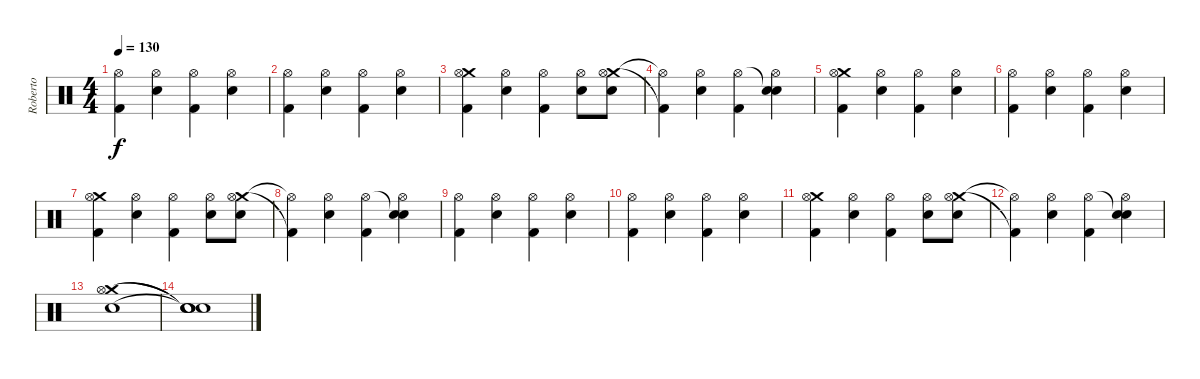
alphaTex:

\track ("Roberto" "Roberto") {instrument percussion}
\staff {score}
\articulation defaults
\ts (4 4)
\tempo 130
\clef neutral
\ks c
("Hi-Hat (open)" "Kick (hit) 2").4{dy f} ("Hi-Hat (open)" "Snare (hit) 2").4 ("Hi-Hat (open)" "Kick (hit) 2").4 ("Hi-Hat (open)" "Snare (hit) 2").4 |
("Hi-Hat (open)" "Kick (hit) 2").4 ("Hi-Hat (open)" "Snare (hit) 2").4 ("Hi-Hat (open)" "Kick (hit) 2").4 ("Hi-Hat (open)" "Snare (hit) 2").4 |
("Crash medium (hit)" "Hi-Hat (open)" "Kick (hit) 2").4 ("Hi-Hat (open)" "Snare (hit) 2").4 ("Hi-Hat (open)" "Kick (hit) 2").4 ("Hi-Hat (open)" "Snare (hit) 2").8 ("Crash medium (hit)" "Hi-Hat (open)" "Snare (hit) 2").8 |
("Hi-Hat (open)"{t} "Kick (hit) 2"{t}).4 ("Hi-Hat (open)" "Snare (hit) 2").4 ("Hi-Hat (open)" "Kick (hit) 2").4 ("Snare (hit)"{t} "Hi-Hat (open)" "Snare (hit) 2").4 |
("Crash medium (hit)" "Hi-Hat (open)" "Kick (hit) 2").4 ("Hi-Hat (open)" "Snare (hit) 2").4 ("Hi-Hat (open)" "Kick (hit) 2").4 ("Hi-Hat (open)" "Snare (hit) 2").4 |
("Hi-Hat (open)" "Kick (hit) 2").4 ("Hi-Hat (open)" "Snare (hit) 2").4 ("Hi-Hat (open)" "Kick (hit) 2").4 ("Hi-Hat (open)" "Snare (hit) 2").4 |
("Crash medium (hit)" "Hi-Hat (open)" "Kick (hit) 2").4 ("Hi-Hat (open)" "Snare (hit) 2").4 ("Hi-Hat (open)" "Kick (hit) 2").4 ("Hi-Hat (open)" "Snare (hit) 2").8 ("Crash medium (hit)" "Hi-Hat (open)" "Snare (hit) 2").8 |
("Hi-Hat (open)"{t} "Kick (hit) 2"{t}).4 ("Hi-Hat (open)" "Snare (hit) 2").4 ("Hi-Hat (open)" "Kick (hit) 2").4 ("Snare (hit)"{t} "Hi-Hat (open)" "Snare (hit) 2").4 |
("Hi-Hat (open)" "Kick (hit) 2").4 ("Hi-Hat (open)" "Snare (hit) 2").4 ("Hi-Hat (open)" "Kick (hit) 2").4 ("Hi-Hat (open)" "Snare (hit) 2").4 |
("Hi-Hat (open)" "Kick (hit) 2").4 ("Hi-Hat (open)" "Snare (hit) 2").4 ("Hi-Hat (open)" "Kick (hit) 2").4 ("Hi-Hat (open)" "Snare (hit) 2").4 |
("Crash medium (hit)" "Hi-Hat (open)" "Kick (hit) 2").4 ("Hi-Hat (open)" "Snare (hit) 2").4 ("Hi-Hat (open)" "Kick (hit) 2").4 ("Hi-Hat (open)" "Snare (hit) 2").8 ("Crash medium (hit)" "Hi-Hat (open)" "Snare (hit) 2").8 |
("Hi-Hat (open)"{t} "Kick (hit) 2"{t}).4 ("Hi-Hat (open)" "Snare (hit) 2").4 ("Hi-Hat (open)" "Kick (hit) 2").4 ("Snare (hit)"{t} "Hi-Hat (open)" "Snare (hit) 2").4 |
("Crash medium (hit)" "Hi-Hat (open)" "Snare (hit) 2").1 |
("Snare (hit)"{t} "Snare (hit)"{t} "Snare (hit)"{t} "Snare (hit)").1
